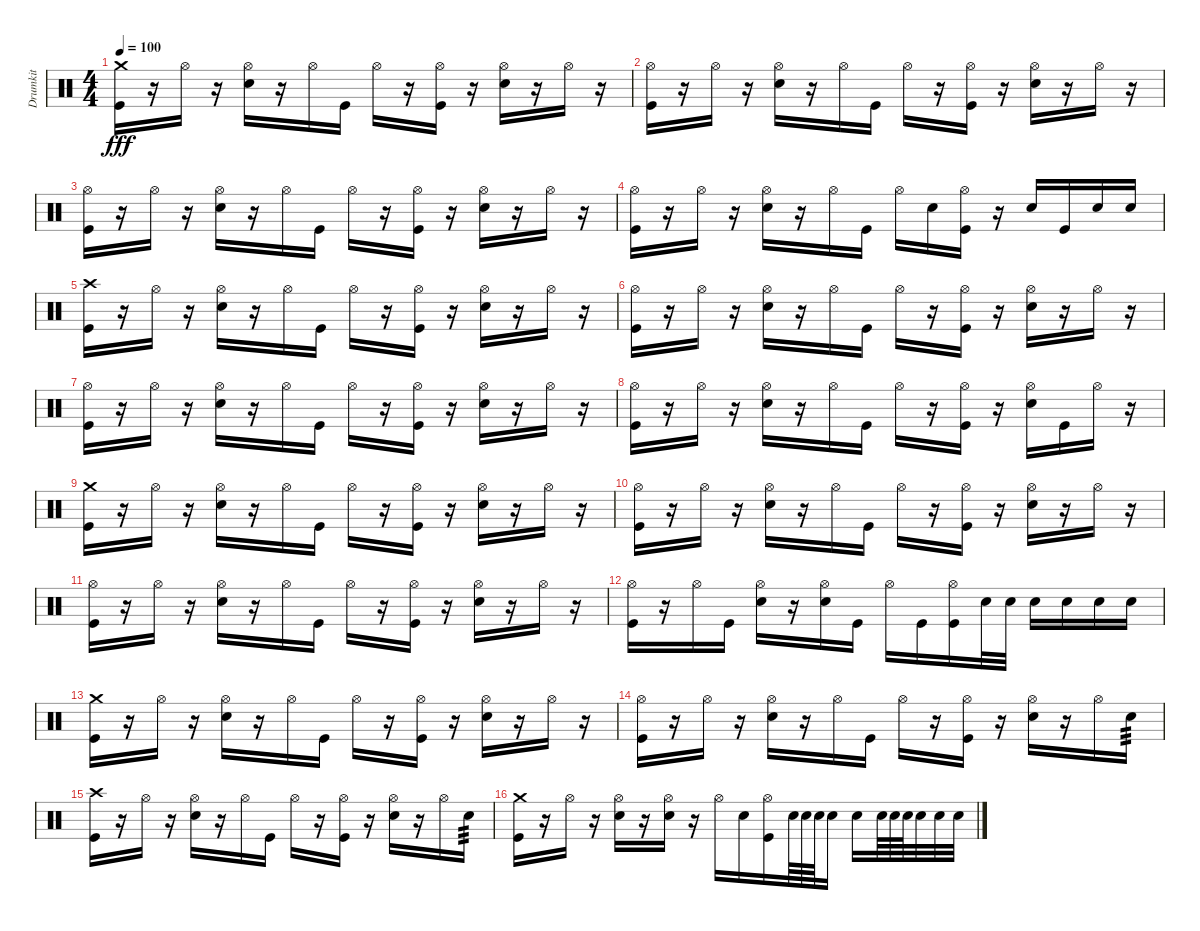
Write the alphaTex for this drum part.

\track ("Drumkit" "Drumkit") {instrument percussion}
\staff {score}
\articulation defaults
\ts (4 4)
\tempo 100
\clef neutral
\ks c
("Crash medium (hit)" "Kick (hit)").16{dy fff} r.16 "Hi-Hat (open)".16 r.16 ("Hi-Hat (open)" "Snare (hit) 2").16 r.16 "Hi-Hat (open)".16 "Kick (hit)".16 "Hi-Hat (open)".16 r.16 ("Hi-Hat (open)" "Kick (hit)").16 r.16 ("Hi-Hat (open)" "Snare (hit) 2").16 r.16 "Hi-Hat (open)".16 r.16 |
("Hi-Hat (open)" "Kick (hit)").16 r.16 "Hi-Hat (open)".16 r.16 ("Hi-Hat (open)" "Snare (hit) 2").16 r.16 "Hi-Hat (open)".16 "Kick (hit)".16 "Hi-Hat (open)".16 r.16 ("Hi-Hat (open)" "Kick (hit)").16 r.16 ("Hi-Hat (open)" "Snare (hit) 2").16 r.16 "Hi-Hat (open)".16 r.16 |
("Hi-Hat (open)" "Kick (hit)").16 r.16 "Hi-Hat (open)".16 r.16 ("Hi-Hat (open)" "Snare (hit) 2").16 r.16 "Hi-Hat (open)".16 "Kick (hit)".16 "Hi-Hat (open)".16 r.16 ("Hi-Hat (open)" "Kick (hit)").16 r.16 ("Hi-Hat (open)" "Snare (hit) 2").16 r.16 "Hi-Hat (open)".16 r.16 |
("Hi-Hat (open)" "Kick (hit)").16 r.16 "Hi-Hat (open)".16 r.16 ("Hi-Hat (open)" "Snare (hit) 2").16 r.16 "Hi-Hat (open)".16 "Kick (hit)".16 "Hi-Hat (open)".16 "Snare (hit) 2".16 ("Hi-Hat (open)" "Kick (hit)").16 r.16 "Snare (hit) 2".16 "Kick (hit)".16 "Snare (hit) 2".16 "Snare (hit) 2".16 |
("Crash high (hit)" "Kick (hit)").16 r.16 "Hi-Hat (open)".16 r.16 ("Hi-Hat (open)" "Snare (hit) 2").16 r.16 "Hi-Hat (open)".16 "Kick (hit)".16 "Hi-Hat (open)".16 r.16 ("Hi-Hat (open)" "Kick (hit)").16 r.16 ("Hi-Hat (open)" "Snare (hit) 2").16 r.16 "Hi-Hat (open)".16 r.16 |
("Hi-Hat (open)" "Kick (hit)").16 r.16 "Hi-Hat (open)".16 r.16 ("Hi-Hat (open)" "Snare (hit) 2").16 r.16 "Hi-Hat (open)".16 "Kick (hit)".16 "Hi-Hat (open)".16 r.16 ("Hi-Hat (open)" "Kick (hit)").16 r.16 ("Hi-Hat (open)" "Snare (hit) 2").16 r.16 "Hi-Hat (open)".16 r.16 |
("Hi-Hat (open)" "Kick (hit)").16 r.16 "Hi-Hat (open)".16 r.16 ("Hi-Hat (open)" "Snare (hit) 2").16 r.16 "Hi-Hat (open)".16 "Kick (hit)".16 "Hi-Hat (open)".16 r.16 ("Hi-Hat (open)" "Kick (hit)").16 r.16 ("Hi-Hat (open)" "Snare (hit) 2").16 r.16 "Hi-Hat (open)".16 r.16 |
("Hi-Hat (open)" "Kick (hit)").16 r.16 "Hi-Hat (open)".16 r.16 ("Hi-Hat (open)" "Snare (hit) 2").16 r.16 "Hi-Hat (open)".16 "Kick (hit)".16 "Hi-Hat (open)".16 r.16 ("Hi-Hat (open)" "Kick (hit)").16 r.16 ("Hi-Hat (open)" "Snare (hit) 2").16 "Kick (hit)".16 "Hi-Hat (open)".16 r.16 |
("Crash medium (hit)" "Kick (hit)").16 r.16 "Hi-Hat (open)".16 r.16 ("Hi-Hat (open)" "Snare (hit) 2").16 r.16 "Hi-Hat (open)".16 "Kick (hit)".16 "Hi-Hat (open)".16 r.16 ("Hi-Hat (open)" "Kick (hit)").16 r.16 ("Hi-Hat (open)" "Snare (hit) 2").16 r.16 "Hi-Hat (open)".16 r.16 |
("Hi-Hat (open)" "Kick (hit)").16 r.16 "Hi-Hat (open)".16 r.16 ("Hi-Hat (open)" "Snare (hit) 2").16 r.16 "Hi-Hat (open)".16 "Kick (hit)".16 "Hi-Hat (open)".16 r.16 ("Hi-Hat (open)" "Kick (hit)").16 r.16 ("Hi-Hat (open)" "Snare (hit) 2").16 r.16 "Hi-Hat (open)".16 r.16 |
("Hi-Hat (open)" "Kick (hit)").16 r.16 "Hi-Hat (open)".16 r.16 ("Hi-Hat (open)" "Snare (hit) 2").16 r.16 "Hi-Hat (open)".16 "Kick (hit)".16 "Hi-Hat (open)".16 r.16 ("Hi-Hat (open)" "Kick (hit)").16 r.16 ("Hi-Hat (open)" "Snare (hit) 2").16 r.16 "Hi-Hat (open)".16 r.16 |
("Hi-Hat (open)" "Kick (hit)").16 r.16 "Hi-Hat (open)".16 "Kick (hit)".16 ("Hi-Hat (open)" "Snare (hit) 2").16 r.16 ("Hi-Hat (open)" "Snare (hit) 2").16 "Kick (hit)".16 "Hi-Hat (open)".16 "Kick (hit)".16 ("Hi-Hat (open)" "Kick (hit)").16 "Snare (hit) 2".32 "Snare (hit) 2".32 "Snare (hit) 2".16 "Snare (hit) 2".16 "Snare (hit) 2".16 "Snare (hit) 2".16 |
("Crash medium (hit)" "Kick (hit)").16 r.16 "Hi-Hat (open)".16 r.16 ("Hi-Hat (open)" "Snare (hit) 2").16 r.16 "Hi-Hat (open)".16 "Kick (hit)".16 "Hi-Hat (open)".16 r.16 ("Hi-Hat (open)" "Kick (hit)").16 r.16 ("Hi-Hat (open)" "Snare (hit) 2").16 r.16 "Hi-Hat (open)".16 r.16 |
("Hi-Hat (open)" "Kick (hit)").16 r.16 "Hi-Hat (open)".16 r.16 ("Hi-Hat (open)" "Snare (hit) 2").16 r.16 "Hi-Hat (open)".16 "Kick (hit)".16 "Hi-Hat (open)".16 r.16 ("Hi-Hat (open)" "Kick (hit)").16 r.16 ("Hi-Hat (open)" "Snare (hit) 2").16 r.16 "Hi-Hat (open)".16 "Snare (hit) 2".16{tp 3} |
("Crash high (hit)" "Kick (hit)").16 r.16 "Hi-Hat (open)".16 r.16 ("Hi-Hat (open)" "Snare (hit) 2").16 r.16 "Hi-Hat (open)".16 "Kick (hit)".16 "Hi-Hat (open)".16 r.16 ("Hi-Hat (open)" "Kick (hit)").16 r.16 ("Hi-Hat (open)" "Snare (hit) 2").16 r.16 "Hi-Hat (open)".16 "Snare (hit) 2".16{tp 3} |
("Crash medium (hit)" "Kick (hit)").16 r.16 "Hi-Hat (open)".16 r.16 ("Hi-Hat (open)" "Snare (hit) 2").16 r.16 ("Hi-Hat (open)" "Snare (hit) 2").16 r.16 "Hi-Hat (open)".16 "Snare (hit) 2".16 ("Hi-Hat (open)" "Kick (hit)").16 "Snare (hit) 2".64 "Snare (hit) 2".64 "Snare (hit) 2".64 "Snare (hit) 2".16 "Snare (hit) 2".16 "Snare (hit) 2".64 "Snare (hit) 2".64 "Snare (hit) 2".64 "Snare (hit) 2".32 "Snare (hit) 2".32 "Snare (hit) 2".32
